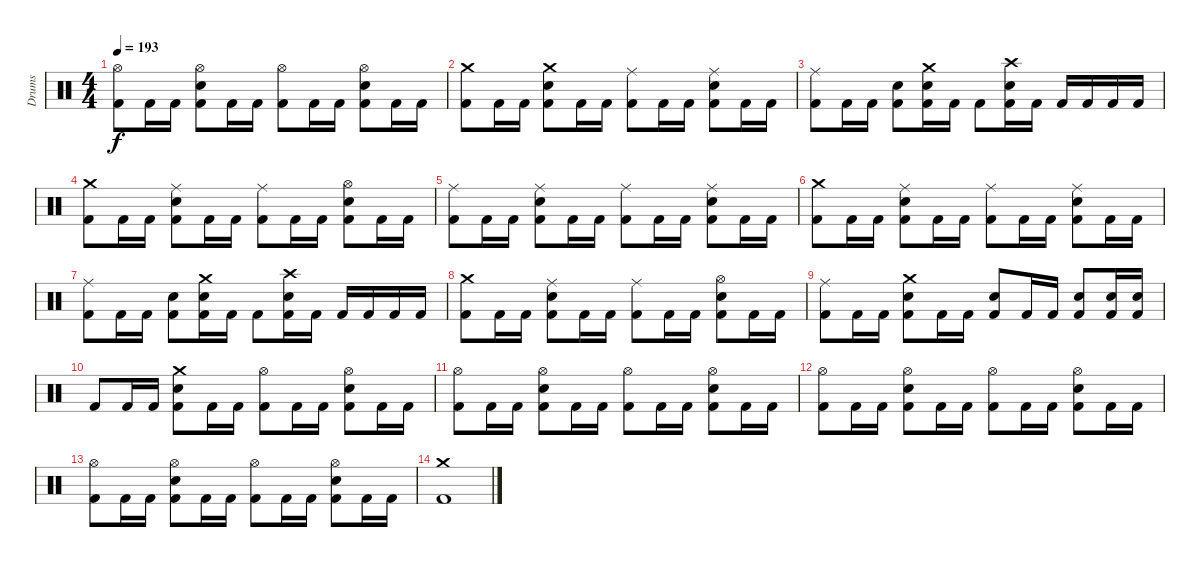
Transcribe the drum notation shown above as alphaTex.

\track ("Drums" "Drums") {instrument percussion}
\staff {score}
\articulation defaults
\ts (4 4)
\tempo 193
\clef neutral
\ks c
("Hi-Hat (open)" "Kick (hit) 2").8{dy f} "Kick (hit) 2".16 "Kick (hit) 2".16 ("Hi-Hat (open)" "Snare (hit) 2" "Kick (hit) 2").8 "Kick (hit) 2".16 "Kick (hit) 2".16 ("Hi-Hat (open)" "Kick (hit) 2").8 "Kick (hit) 2".16 "Kick (hit) 2".16 ("Hi-Hat (open)" "Snare (hit) 2" "Kick (hit) 2").8 "Kick (hit) 2".16 "Kick (hit) 2".16 |
("Crash medium (hit)" "Kick (hit) 2").8 "Kick (hit) 2".16 "Kick (hit) 2".16 ("Crash medium (hit)" "Snare (hit) 2" "Kick (hit) 2").8 "Kick (hit) 2".16 "Kick (hit) 2".16 ("Ride (middle)" "Kick (hit) 2").8 "Kick (hit) 2".16 "Kick (hit) 2".16 ("Ride (middle)" "Snare (hit) 2" "Kick (hit) 2").8 "Kick (hit) 2".16 "Kick (hit) 2".16 |
("Ride (middle)" "Kick (hit) 2").8 "Kick (hit) 2".16 "Kick (hit) 2".16 ("Snare (hit) 2" "Kick (hit) 2").8 ("Crash medium (hit)" "Snare (hit) 2" "Kick (hit) 2").16 "Kick (hit) 2".16 "Kick (hit) 2".8 ("Crash high (hit)" "Snare (hit) 2" "Kick (hit) 2").16 "Kick (hit) 2".16 "Kick (hit) 2".16 "Kick (hit) 2".16 "Kick (hit) 2".16 "Kick (hit) 2".16 |
("Crash medium (hit)" "Kick (hit) 2").8 "Kick (hit) 2".16 "Kick (hit) 2".16 ("Ride (middle)" "Snare (hit) 2" "Kick (hit) 2").8 "Kick (hit) 2".16 "Kick (hit) 2".16 ("Ride (middle)" "Kick (hit) 2").8 "Kick (hit) 2".16 "Kick (hit) 2".16 ("Hi-Hat (open)" "Snare (hit) 2" "Kick (hit) 2").8 "Kick (hit) 2".16 "Kick (hit) 2".16 |
("Ride (middle)" "Kick (hit) 2").8 "Kick (hit) 2".16 "Kick (hit) 2".16 ("Ride (middle)" "Snare (hit) 2" "Kick (hit) 2").8 "Kick (hit) 2".16 "Kick (hit) 2".16 ("Ride (middle)" "Kick (hit) 2").8 "Kick (hit) 2".16 "Kick (hit) 2".16 ("Ride (middle)" "Snare (hit) 2" "Kick (hit) 2").8 "Kick (hit) 2".16 "Kick (hit) 2".16 |
("Crash medium (hit)" "Kick (hit) 2").8 "Kick (hit) 2".16 "Kick (hit) 2".16 ("Ride (middle)" "Snare (hit) 2" "Kick (hit) 2").8 "Kick (hit) 2".16 "Kick (hit) 2".16 ("Ride (middle)" "Kick (hit) 2").8 "Kick (hit) 2".16 "Kick (hit) 2".16 ("Ride (middle)" "Snare (hit) 2" "Kick (hit) 2").8 "Kick (hit) 2".16 "Kick (hit) 2".16 |
("Ride (middle)" "Kick (hit) 2").8 "Kick (hit) 2".16 "Kick (hit) 2".16 ("Snare (hit) 2" "Kick (hit) 2").8 ("Crash medium (hit)" "Snare (hit) 2" "Kick (hit) 2").16 "Kick (hit) 2".16 "Kick (hit) 2".8 ("Crash high (hit)" "Snare (hit) 2" "Kick (hit) 2").16 "Kick (hit) 2".16 "Kick (hit) 2".16 "Kick (hit) 2".16 "Kick (hit) 2".16 "Kick (hit) 2".16 |
("Crash medium (hit)" "Kick (hit) 2").8 "Kick (hit) 2".16 "Kick (hit) 2".16 ("Ride (middle)" "Snare (hit) 2" "Kick (hit) 2").8 "Kick (hit) 2".16 "Kick (hit) 2".16 ("Ride (middle)" "Kick (hit) 2").8 "Kick (hit) 2".16 "Kick (hit) 2".16 ("Hi-Hat (open)" "Snare (hit) 2" "Kick (hit) 2").8 "Kick (hit) 2".16 "Kick (hit) 2".16 |
("Ride (middle)" "Kick (hit) 2").8 "Kick (hit) 2".16 "Kick (hit) 2".16 ("Crash medium (hit)" "Snare (hit) 2" "Kick (hit) 2").8 "Kick (hit) 2".16 "Kick (hit) 2".16 ("Snare (hit) 2" "Kick (hit) 2").8 "Kick (hit) 2".16 "Kick (hit) 2".16 ("Snare (hit) 2" "Kick (hit) 2").8 ("Snare (hit) 2" "Kick (hit) 2").16 ("Snare (hit) 2" "Kick (hit) 2").16 |
"Kick (hit) 2".8 "Kick (hit) 2".16 "Kick (hit) 2".16 ("Crash medium (hit)" "Snare (hit) 2" "Kick (hit) 2").8 "Kick (hit) 2".16 "Kick (hit) 2".16 ("Hi-Hat (open)" "Kick (hit) 2").8 "Kick (hit) 2".16 "Kick (hit) 2".16 ("Hi-Hat (open)" "Snare (hit) 2" "Kick (hit) 2").8 "Kick (hit) 2".16 "Kick (hit) 2".16 |
("Hi-Hat (open)" "Kick (hit) 2").8 "Kick (hit) 2".16 "Kick (hit) 2".16 ("Hi-Hat (open)" "Snare (hit) 2" "Kick (hit) 2").8 "Kick (hit) 2".16 "Kick (hit) 2".16 ("Hi-Hat (open)" "Kick (hit) 2").8 "Kick (hit) 2".16 "Kick (hit) 2".16 ("Hi-Hat (open)" "Snare (hit) 2" "Kick (hit) 2").8 "Kick (hit) 2".16 "Kick (hit) 2".16 |
("Hi-Hat (open)" "Kick (hit) 2").8 "Kick (hit) 2".16 "Kick (hit) 2".16 ("Hi-Hat (open)" "Snare (hit) 2" "Kick (hit) 2").8 "Kick (hit) 2".16 "Kick (hit) 2".16 ("Hi-Hat (open)" "Kick (hit) 2").8 "Kick (hit) 2".16 "Kick (hit) 2".16 ("Hi-Hat (open)" "Snare (hit) 2" "Kick (hit) 2").8 "Kick (hit) 2".16 "Kick (hit) 2".16 |
("Hi-Hat (open)" "Kick (hit) 2").8 "Kick (hit) 2".16 "Kick (hit) 2".16 ("Hi-Hat (open)" "Snare (hit) 2" "Kick (hit) 2").8 "Kick (hit) 2".16 "Kick (hit) 2".16 ("Hi-Hat (open)" "Kick (hit) 2").8 "Kick (hit) 2".16 "Kick (hit) 2".16 ("Hi-Hat (open)" "Snare (hit) 2" "Kick (hit) 2").8 "Kick (hit) 2".16 "Kick (hit) 2".16 |
("Crash medium (hit)" "Kick (hit) 2").1
